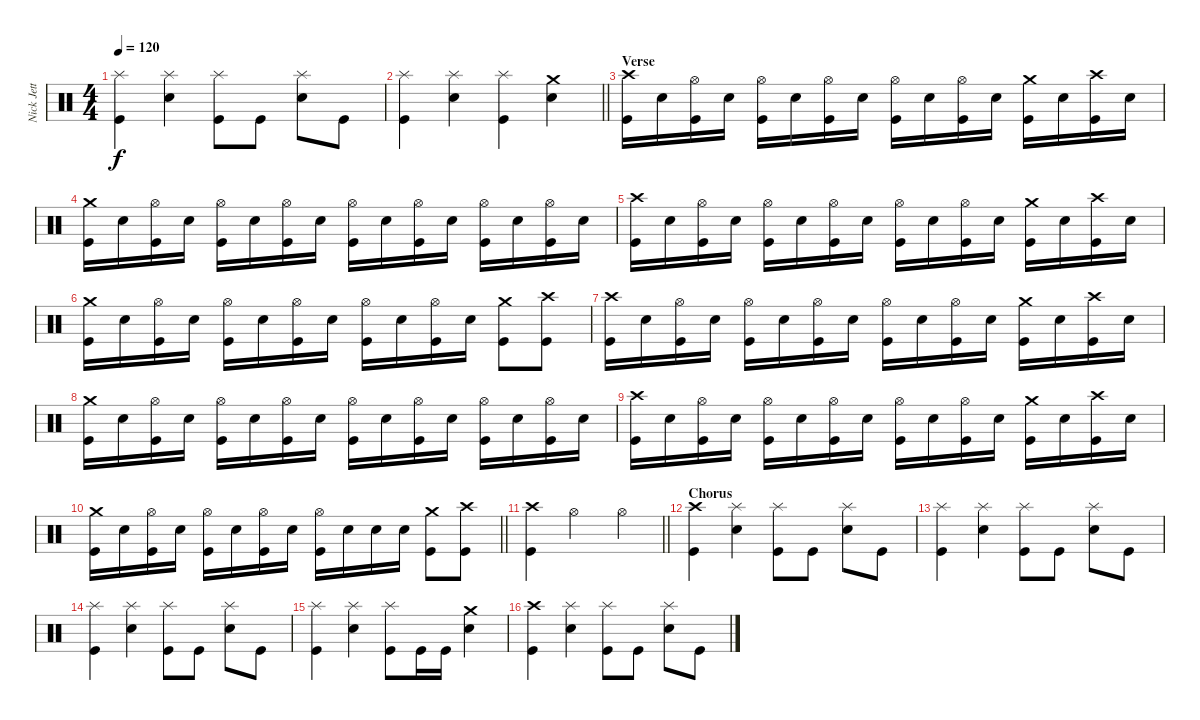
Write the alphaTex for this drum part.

\track ("Nick Jett" "Nick Jett") {instrument percussion}
\staff {score}
\articulation defaults
\ts (4 4)
\tempo 120
\clef neutral
\ks c
("Splash (hit)" "Kick (hit)").4{dy f} ("Splash (hit)" "Electric Snare (hit)").4 ("Splash (hit)" "Kick (hit)").8 "Kick (hit)".8 ("Splash (hit)" "Electric Snare (hit)").8 "Kick (hit)".8 |
\barLineRight lightlight
("Splash (hit)" "Kick (hit)").4 ("Splash (hit)" "Electric Snare (hit)").4 ("Splash (hit)" "Kick (hit)").4 ("Crash medium (hit)" "Electric Snare (hit)").4 |
\section ("" "Verse")
("Crash high (hit)" "Kick (hit)").16 "Electric Snare (hit)".16 ("Hi-Hat (open)" "Kick (hit)").16 "Electric Snare (hit)".16 ("Hi-Hat (open)" "Kick (hit)").16 "Electric Snare (hit)".16 ("Hi-Hat (open)" "Kick (hit)").16 "Electric Snare (hit)".16 ("Hi-Hat (open)" "Kick (hit)").16 "Electric Snare (hit)".16 ("Hi-Hat (open)" "Kick (hit)").16 "Electric Snare (hit)".16 ("Crash medium (hit)" "Kick (hit)").16 "Electric Snare (hit)".16 ("Crash high (hit)" "Kick (hit)").16 "Electric Snare (hit)".16 |
("Crash medium (hit)" "Kick (hit)").16 "Electric Snare (hit)".16 ("Hi-Hat (open)" "Kick (hit)").16 "Electric Snare (hit)".16 ("Hi-Hat (open)" "Kick (hit)").16 "Electric Snare (hit)".16 ("Hi-Hat (open)" "Kick (hit)").16 "Electric Snare (hit)".16 ("Hi-Hat (open)" "Kick (hit)").16 "Electric Snare (hit)".16 ("Hi-Hat (open)" "Kick (hit)").16 "Electric Snare (hit)".16 ("Hi-Hat (open)" "Kick (hit)").16 "Electric Snare (hit)".16 ("Hi-Hat (open)" "Kick (hit)").16 "Electric Snare (hit)".16 |
("Crash high (hit)" "Kick (hit)").16 "Electric Snare (hit)".16 ("Hi-Hat (open)" "Kick (hit)").16 "Electric Snare (hit)".16 ("Hi-Hat (open)" "Kick (hit)").16 "Electric Snare (hit)".16 ("Hi-Hat (open)" "Kick (hit)").16 "Electric Snare (hit)".16 ("Hi-Hat (open)" "Kick (hit)").16 "Electric Snare (hit)".16 ("Hi-Hat (open)" "Kick (hit)").16 "Electric Snare (hit)".16 ("Crash medium (hit)" "Kick (hit)").16 "Electric Snare (hit)".16 ("Crash high (hit)" "Kick (hit)").16 "Electric Snare (hit)".16 |
("Crash medium (hit)" "Kick (hit)").16 "Electric Snare (hit)".16 ("Hi-Hat (open)" "Kick (hit)").16 "Electric Snare (hit)".16 ("Hi-Hat (open)" "Kick (hit)").16 "Electric Snare (hit)".16 ("Hi-Hat (open)" "Kick (hit)").16 "Electric Snare (hit)".16 ("Hi-Hat (open)" "Kick (hit)").16 "Electric Snare (hit)".16 ("Hi-Hat (open)" "Kick (hit)").16 "Electric Snare (hit)".16 ("Crash medium (hit)" "Kick (hit)").8 ("Crash high (hit)" "Kick (hit)").8 |
("Crash high (hit)" "Kick (hit)").16 "Electric Snare (hit)".16 ("Hi-Hat (open)" "Kick (hit)").16 "Electric Snare (hit)".16 ("Hi-Hat (open)" "Kick (hit)").16 "Electric Snare (hit)".16 ("Hi-Hat (open)" "Kick (hit)").16 "Electric Snare (hit)".16 ("Hi-Hat (open)" "Kick (hit)").16 "Electric Snare (hit)".16 ("Hi-Hat (open)" "Kick (hit)").16 "Electric Snare (hit)".16 ("Crash medium (hit)" "Kick (hit)").16 "Electric Snare (hit)".16 ("Crash high (hit)" "Kick (hit)").16 "Electric Snare (hit)".16 |
("Crash medium (hit)" "Kick (hit)").16 "Electric Snare (hit)".16 ("Hi-Hat (open)" "Kick (hit)").16 "Electric Snare (hit)".16 ("Hi-Hat (open)" "Kick (hit)").16 "Electric Snare (hit)".16 ("Hi-Hat (open)" "Kick (hit)").16 "Electric Snare (hit)".16 ("Hi-Hat (open)" "Kick (hit)").16 "Electric Snare (hit)".16 ("Hi-Hat (open)" "Kick (hit)").16 "Electric Snare (hit)".16 ("Hi-Hat (open)" "Kick (hit)").16 "Electric Snare (hit)".16 ("Hi-Hat (open)" "Kick (hit)").16 "Electric Snare (hit)".16 |
("Crash high (hit)" "Kick (hit)").16 "Electric Snare (hit)".16 ("Hi-Hat (open)" "Kick (hit)").16 "Electric Snare (hit)".16 ("Hi-Hat (open)" "Kick (hit)").16 "Electric Snare (hit)".16 ("Hi-Hat (open)" "Kick (hit)").16 "Electric Snare (hit)".16 ("Hi-Hat (open)" "Kick (hit)").16 "Electric Snare (hit)".16 ("Hi-Hat (open)" "Kick (hit)").16 "Electric Snare (hit)".16 ("Crash medium (hit)" "Kick (hit)").16 "Electric Snare (hit)".16 ("Crash high (hit)" "Kick (hit)").16 "Electric Snare (hit)".16 |
\barLineRight lightlight
("Crash medium (hit)" "Kick (hit)").16 "Electric Snare (hit)".16 ("Hi-Hat (open)" "Kick (hit)").16 "Electric Snare (hit)".16 ("Hi-Hat (open)" "Kick (hit)").16 "Electric Snare (hit)".16 ("Hi-Hat (open)" "Kick (hit)").16 "Electric Snare (hit)".16 ("Hi-Hat (open)" "Kick (hit)").16 "Electric Snare (hit)".16 "Electric Snare (hit)".16 "Electric Snare (hit)".16 ("Crash medium (hit)" "Kick (hit)").8 ("Crash high (hit)" "Kick (hit)").8 |
\barLineRight lightlight
("Crash high (hit)" "Kick (hit)").4 "Hi-Hat (open)".2 "Hi-Hat (open)".4 |
\section ("" "Chorus")
("Crash high (hit)" "Kick (hit)").4 ("Splash (hit)" "Electric Snare (hit)").4 ("Splash (hit)" "Kick (hit)").8 "Kick (hit)".8 ("Splash (hit)" "Electric Snare (hit)").8 "Kick (hit)".8 |
("Splash (hit)" "Kick (hit)").4 ("Splash (hit)" "Electric Snare (hit)").4 ("Splash (hit)" "Kick (hit)").8 "Kick (hit)".8 ("Splash (hit)" "Electric Snare (hit)").8 "Kick (hit)".8 |
("Splash (hit)" "Kick (hit)").4 ("Splash (hit)" "Electric Snare (hit)").4 ("Splash (hit)" "Kick (hit)").8 "Kick (hit)".8 ("Splash (hit)" "Electric Snare (hit)").8 "Kick (hit)".8 |
("Splash (hit)" "Kick (hit)").4 ("Splash (hit)" "Electric Snare (hit)").4 ("Splash (hit)" "Kick (hit)").8 "Kick (hit)".16 "Kick (hit)".16 ("Crash medium (hit)" "Electric Snare (hit)").4 |
("Crash high (hit)" "Kick (hit)").4 ("Splash (hit)" "Electric Snare (hit)").4 ("Splash (hit)" "Kick (hit)").8 "Kick (hit)".8 ("Splash (hit)" "Electric Snare (hit)").8 "Kick (hit)".8
